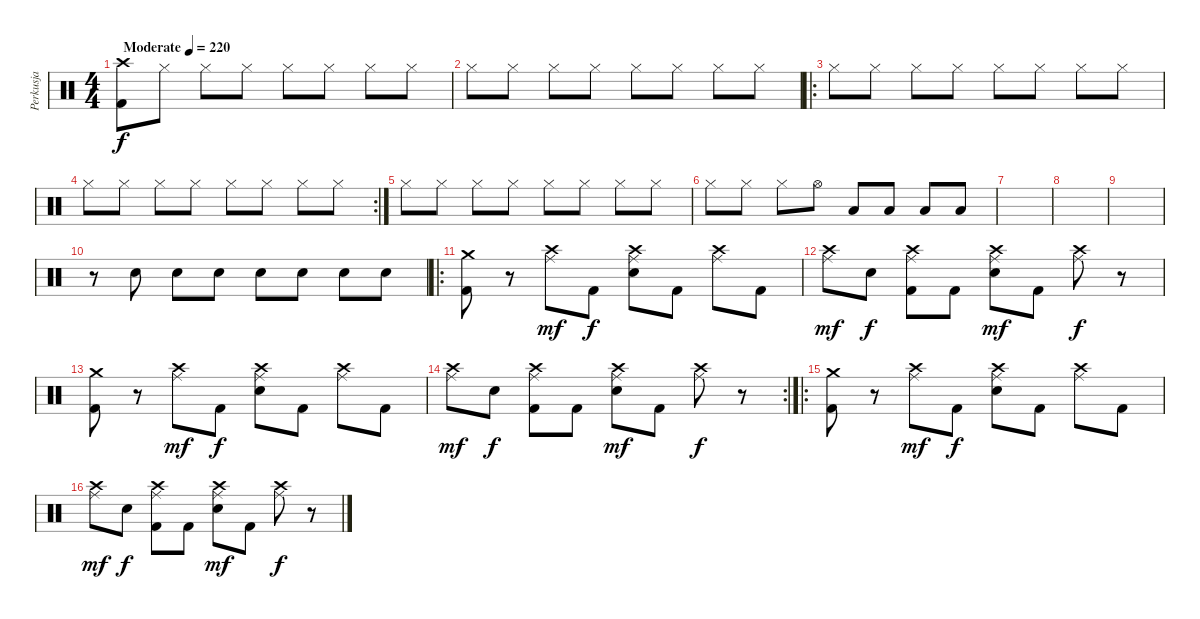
\track ("Perkusja" "Perkusja") {instrument percussion}
\staff {score}
\articulation defaults
\ts (4 4)
\tempo (220 "Moderate")
\clef neutral
\ks c
("Crash high (hit)" "Kick (hit) 2").8{dy f} "Hi-Hat (closed)".8 "Hi-Hat (closed)".8 "Hi-Hat (closed)".8 "Hi-Hat (closed)".8 "Hi-Hat (closed)".8 "Hi-Hat (closed)".8 "Hi-Hat (closed)".8 |
"Hi-Hat (closed)".8 "Hi-Hat (closed)".8 "Hi-Hat (closed)".8 "Hi-Hat (closed)".8 "Hi-Hat (closed)".8 "Hi-Hat (closed)".8 "Hi-Hat (closed)".8 "Hi-Hat (closed)".8 |
\ro "Hi-Hat (closed)".8 "Hi-Hat (closed)".8 "Hi-Hat (closed)".8 "Hi-Hat (closed)".8 "Hi-Hat (closed)".8 "Hi-Hat (closed)".8 "Hi-Hat (closed)".8 "Hi-Hat (closed)".8
|
\rc 2 "Hi-Hat (closed)".8 "Hi-Hat (closed)".8 "Hi-Hat (closed)".8 "Hi-Hat (closed)".8 "Hi-Hat (closed)".8 "Hi-Hat (closed)".8 "Hi-Hat (closed)".8 "Hi-Hat (closed)".8
|
"Hi-Hat (closed)".8 "Hi-Hat (closed)".8 "Hi-Hat (closed)".8 "Hi-Hat (closed)".8 "Hi-Hat (closed)".8 "Hi-Hat (closed)".8 "Hi-Hat (closed)".8 "Hi-Hat (closed)".8 |
"Hi-Hat (closed)".8 "Hi-Hat (closed)".8 "Hi-Hat (closed)".8 "Hi-Hat (open)".8 "Low Floor Tom (hit)".8 "Low Floor Tom (hit)".8 "Low Floor Tom (hit)".8 "Low Floor Tom (hit)".8 |
|
|
|
r.8 "Snare (hit) 2".8 "Snare (hit) 2".8 "Snare (hit) 2".8 "Snare (hit) 2".8 "Snare (hit) 2".8 "Snare (hit) 2".8 "Snare (hit) 2".8 |
\ro
("Crash medium (hit)" "Kick (hit) 2").8 r.8 ("Crash high (hit)" "Ride (middle)").8{dy mf} "Kick (hit) 2".8{dy f} ("Crash high (hit)" "Snare (hit) 2" "Ride (middle)").8 "Kick (hit) 2".8 ("Crash high (hit)" "Ride (middle)").8 "Kick (hit) 2".8 |
("Crash high (hit)" "Ride (middle)").8{dy mf} "Snare (hit) 2".8{dy f} ("Crash high (hit)" "Kick (hit) 2" "Ride (middle)").8 "Kick (hit) 2".8 ("Crash high (hit)" "Snare (hit) 2" "Ride (middle)").8{dy mf} "Kick (hit) 2".8 ("Crash high (hit)" "Ride (middle)").8{dy f} r.8 |
("Crash medium (hit)" "Kick (hit) 2").8 r.8 ("Crash high (hit)" "Ride (middle)").8{dy mf} "Kick (hit) 2".8{dy f} ("Crash high (hit)" "Snare (hit) 2" "Ride (middle)").8 "Kick (hit) 2".8 ("Crash high (hit)" "Ride (middle)").8 "Kick (hit) 2".8 |
\rc 2
("Crash high (hit)" "Ride (middle)").8{dy mf} "Snare (hit) 2".8{dy f} ("Crash high (hit)" "Kick (hit) 2" "Ride (middle)").8 "Kick (hit) 2".8 ("Crash high (hit)" "Snare (hit) 2" "Ride (middle)").8{dy mf} "Kick (hit) 2".8 ("Crash high (hit)" "Ride (middle)").8{dy f} r.8 |
\ro
("Crash medium (hit)" "Kick (hit) 2").8 r.8 ("Crash high (hit)" "Ride (middle)").8{dy mf} "Kick (hit) 2".8{dy f} ("Crash high (hit)" "Snare (hit) 2" "Ride (middle)").8 "Kick (hit) 2".8 ("Crash high (hit)" "Ride (middle)").8 "Kick (hit) 2".8 |
("Crash high (hit)" "Ride (middle)").8{dy mf} "Snare (hit) 2".8{dy f} ("Crash high (hit)" "Kick (hit) 2" "Ride (middle)").8 "Kick (hit) 2".8 ("Crash high (hit)" "Snare (hit) 2" "Ride (middle)").8{dy mf} "Kick (hit) 2".8 ("Crash high (hit)" "Ride (middle)").8{dy f} r.8
